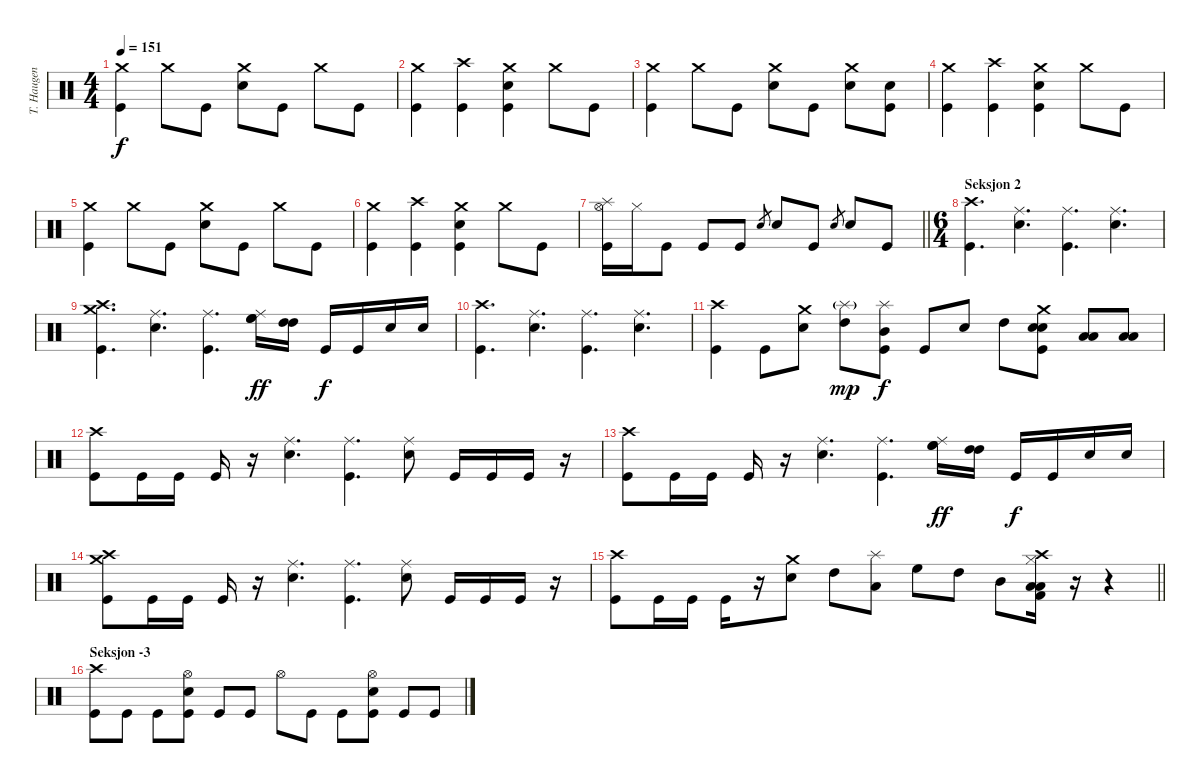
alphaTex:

\track ("T. Haugen" "T. Haugen") {instrument percussion}
\staff {score}
\articulation defaults
\ts (4 4)
\tempo 151
\clef neutral
\ks c
("Crash medium (hit)" "Kick (hit)").4{dy f} "Crash medium (hit)".8 "Kick (hit)".8 ("Crash medium (hit)" "Electric Snare (hit)").8 "Kick (hit)".8 "Crash medium (hit)".8 "Kick (hit)".8 |
("Crash medium (hit)" "Kick (hit)").4 ("Crash high (hit)" "Kick (hit)").4 ("Crash medium (hit)" "Electric Snare (hit)" "Kick (hit)").4 "Crash medium (hit)".8 "Kick (hit)".8 |
("Crash medium (hit)" "Kick (hit)").4 "Crash medium (hit)".8 "Kick (hit)".8 ("Crash medium (hit)" "Electric Snare (hit)").8 "Kick (hit)".8 ("Crash medium (hit)" "Electric Snare (hit)").8 ("Electric Snare (hit)" "Kick (hit)").8 |
("Crash medium (hit)" "Kick (hit)").4 ("Crash high (hit)" "Kick (hit)").4 ("Crash medium (hit)" "Electric Snare (hit)" "Kick (hit)").4 "Crash medium (hit)".8 "Kick (hit)".8 |
("Crash medium (hit)" "Kick (hit)").4 "Crash medium (hit)".8 "Kick (hit)".8 ("Crash medium (hit)" "Electric Snare (hit)").8 "Kick (hit)".8 "Crash medium (hit)".8 "Kick (hit)".8 |
("Crash medium (hit)" "Kick (hit)").4 ("Crash high (hit)" "Kick (hit)").4 ("Crash medium (hit)" "Electric Snare (hit)" "Kick (hit)").4 "Crash medium (hit)".8 "Kick (hit)".8 |
\barLineRight lightlight
("Splash (hit)" "Hi-Hat (open)" "Kick (hit)").16 "Hi-Hat (closed)".16 "Kick (hit)".8 "Kick (hit)".8 "Kick (hit)".8 "Electric Snare (hit)".8{gr} "Electric Snare (hit)".8 "Kick (hit)".8 "Electric Snare (hit)".8{gr} "Electric Snare (hit)".8 "Kick (hit)".8 |
\ts (6 4)
\section ("" "Seksjon 2")
("Crash high (hit)" "Kick (hit)").4{d} ("Ride (middle)" "Electric Snare (hit)").4{d} ("Ride (middle)" "Kick (hit)").4{d} ("Ride (middle)" "Electric Snare (hit)").4{d} |
("Crash medium (hit)" "Crash high (hit)" "Kick (hit)").4{d} ("Ride (middle)" "Electric Snare (hit)").4{d} ("Ride (middle)" "Kick (hit)").4{d} ("Ride (middle)" "High Floor Tom (hit)" "High Floor Tom (hit)").16{dy ff} ("High Tom (hit)" "High Tom (hit)").16 "Kick (hit)".16{dy f} "Kick (hit)".16 "Electric Snare (hit)".16 "Electric Snare (hit)".16 |
("Crash high (hit)" "Kick (hit)").4{d} ("Ride (middle)" "Electric Snare (hit)").4{d} ("Ride (middle)" "Kick (hit)").4{d} ("Ride (middle)" "Electric Snare (hit)").4{d} |
("Crash high (hit)" "Kick (hit)").4 "Kick (hit)".8 ("Crash medium (hit)" "Electric Snare (hit)").8 ("Splash (hit)"{g} "High Tom (hit)").8{dy mp} ("Splash (hit)" "Mid Tom (hit)" "Kick (hit)").8{dy f} "Kick (hit)".8 "Electric Snare (hit)".8 "High Tom (hit)".8 ("Crash medium (hit)" "Electric Snare (hit)" "Electric Snare (hit)" "Kick (hit)").8 ("Low Tom (hit)" "Low Tom (hit)").8 ("Low Floor Tom (hit)" "Low Floor Tom (hit)").8 |
("Crash high (hit)" "Kick (hit)").8 "Kick (hit)".16 "Kick (hit)".16 "Kick (hit)".16 r.16 ("Ride (middle)" "Electric Snare (hit)").4{d} ("Ride (middle)" "Kick (hit)").4{d} ("Ride (middle)" "Electric Snare (hit)").8 "Kick (hit)".16 "Kick (hit)".16 "Kick (hit)".16 r.16 |
("Crash high (hit)" "Kick (hit)").8 "Kick (hit)".16 "Kick (hit)".16 "Kick (hit)".16 r.16 ("Ride (middle)" "Electric Snare (hit)").4{d} ("Ride (middle)" "Kick (hit)").4{d} ("Ride (middle)" "High Floor Tom (hit)" "High Floor Tom (hit)").16{dy ff} ("High Tom (hit)" "High Tom (hit)").16 "Kick (hit)".16{dy f} "Kick (hit)".16 "Electric Snare (hit)".16 "Electric Snare (hit)".16 |
("Crash medium (hit)" "Crash high (hit)" "Kick (hit)").8 "Kick (hit)".16 "Kick (hit)".16 "Kick (hit)".16 r.16 ("Ride (middle)" "Electric Snare (hit)").4{d} ("Ride (middle)" "Kick (hit)").4{d} ("Ride (middle)" "Electric Snare (hit)").8 "Kick (hit)".16 "Kick (hit)".16 "Kick (hit)".16 r.16 |
\barLineRight lightlight
("Crash high (hit)" "Kick (hit)").8 "Kick (hit)".16 "Kick (hit)".16 "Kick (hit)".16 r.16 ("Crash medium (hit)" "Electric Snare (hit)").8 "High Tom (hit)".8 ("Splash (hit)" "Low Tom (hit)").8 "High Floor Tom (hit)".8 "High Tom (hit)".8 "Mid Tom (hit)".8 ("Crash high (hit)" "Hi-Hat (closed)" "Low Floor Tom (hit)" "Low Floor Tom (hit)" "Kick (hit) 2").16 r.16{volume 0} r.4 |
\section ("" "Seksjon -3")
("Crash high (hit)" "Kick (hit)").8{volume 16} "Kick (hit)".8 "Kick (hit)".8 ("Hi-Hat (open)" "Electric Snare (hit)" "Kick (hit)").8 "Kick (hit)".8 "Kick (hit)".8 "Hi-Hat (open)".8 "Kick (hit)".8 "Kick (hit)".8 ("Hi-Hat (open)" "Electric Snare (hit)" "Kick (hit)").8 "Kick (hit)".8 "Kick (hit)".8
